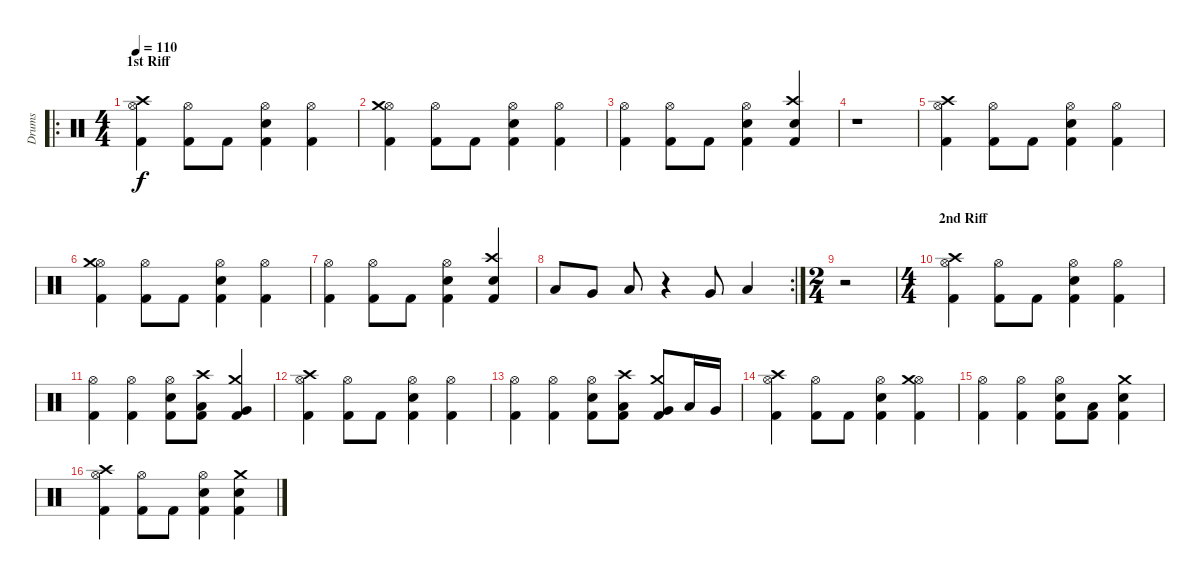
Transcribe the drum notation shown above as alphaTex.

\track ("Drums" "Drums") {instrument percussion}
\staff {score}
\articulation defaults
\ro
\ts (4 4)
\section ("" "1st Riff")
\tempo 110
\clef neutral
\ks c
("Hi-Hat (open)" "Kick (hit) 2" "Crash high (hit)").4{dy f} ("Hi-Hat (open)" "Kick (hit) 2").8 "Kick (hit) 2".8 ("Hi-Hat (open)" "Snare (hit) 2" "Kick (hit) 2").4 ("Hi-Hat (open)" "Kick (hit) 2").4 |
("Hi-Hat (open)" "Kick (hit) 2" "Crash medium (hit)").4 ("Hi-Hat (open)" "Kick (hit) 2").8 "Kick (hit) 2".8 ("Hi-Hat (open)" "Snare (hit) 2" "Kick (hit) 2").4 ("Hi-Hat (open)" "Kick (hit) 2").4 |
("Hi-Hat (open)" "Kick (hit) 2").4 ("Hi-Hat (open)" "Kick (hit) 2").8 "Kick (hit) 2".8 ("Hi-Hat (open)" "Snare (hit) 2" "Kick (hit) 2").4 ("Snare (hit) 2" "Kick (hit) 2" "Crash high (hit)").4 |
r.1 |
("Hi-Hat (open)" "Kick (hit) 2" "Crash high (hit)").4 ("Hi-Hat (open)" "Kick (hit) 2").8 "Kick (hit) 2".8 ("Hi-Hat (open)" "Snare (hit) 2" "Kick (hit) 2").4 ("Hi-Hat (open)" "Kick (hit) 2").4 |
("Hi-Hat (open)" "Kick (hit) 2" "Crash medium (hit)").4 ("Hi-Hat (open)" "Kick (hit) 2").8 "Kick (hit) 2".8 ("Hi-Hat (open)" "Snare (hit) 2" "Kick (hit) 2").4 ("Hi-Hat (open)" "Kick (hit) 2").4 |
("Hi-Hat (open)" "Kick (hit) 2").4 ("Hi-Hat (open)" "Kick (hit) 2").8 "Kick (hit) 2".8 ("Hi-Hat (open)" "Snare (hit) 2" "Kick (hit) 2").4 ("Snare (hit) 2" "Kick (hit) 2" "Crash high (hit)").4 |
\rc 2 "Low Tom (hit)".8 "Very Low Tom (hit)".8 "Low Floor Tom (hit)".8
r.4 "Very Low Tom (hit)".8 "Low Floor Tom (hit)".4 |
\ts (2 4)
r.2 |
\ts (4 4)
\section ("" "2nd Riff")
("Hi-Hat (open)" "Kick (hit) 2" "Crash high (hit)").4 ("Hi-Hat (open)" "Kick (hit) 2").8 "Kick (hit) 2".8 ("Hi-Hat (open)" "Snare (hit) 2" "Kick (hit) 2").4 ("Hi-Hat (open)" "Kick (hit) 2").4 |
("Hi-Hat (open)" "Kick (hit) 2").4 ("Hi-Hat (open)" "Kick (hit) 2").4 ("Hi-Hat (open)" "Snare (hit) 2" "Kick (hit) 2").8 ("Kick (hit) 2" "Low Tom (hit)" "Crash high (hit)").8 ("Kick (hit) 2" "Very Low Tom (hit)" "Crash medium (hit)").4 |
("Hi-Hat (open)" "Kick (hit) 2" "Crash high (hit)").4 ("Hi-Hat (open)" "Kick (hit) 2").8 "Kick (hit) 2".8 ("Hi-Hat (open)" "Snare (hit) 2" "Kick (hit) 2").4 ("Hi-Hat (open)" "Kick (hit) 2").4 |
("Hi-Hat (open)" "Kick (hit) 2").4 ("Hi-Hat (open)" "Kick (hit) 2").4 ("Hi-Hat (open)" "Snare (hit) 2" "Kick (hit) 2").8 ("Kick (hit) 2" "Low Tom (hit)" "Crash high (hit)").8 ("Kick (hit) 2" "Very Low Tom (hit)" "Crash medium (hit)").8 "Low Tom (hit)".16 "Very Low Tom (hit)".16 |
("Hi-Hat (open)" "Kick (hit) 2" "Crash high (hit)").4 ("Hi-Hat (open)" "Kick (hit) 2").8 "Kick (hit) 2".8 ("Hi-Hat (open)" "Snare (hit) 2" "Kick (hit) 2").4 ("Hi-Hat (open)" "Kick (hit) 2" "Crash medium (hit)").4 |
("Hi-Hat (open)" "Kick (hit) 2").4 ("Hi-Hat (open)" "Kick (hit) 2").4 ("Hi-Hat (open)" "Snare (hit) 2" "Kick (hit) 2").8 ("Kick (hit) 2" "Low Tom (hit)").8 ("Snare (hit) 2" "Kick (hit) 2" "Crash medium (hit)").4 |
("Hi-Hat (open)" "Kick (hit) 2" "Crash high (hit)").4 ("Hi-Hat (open)" "Kick (hit) 2").8 "Kick (hit) 2".8 ("Hi-Hat (open)" "Snare (hit) 2" "Kick (hit) 2").4 ("Snare (hit) 2" "Kick (hit) 2" "Crash medium (hit)").4
